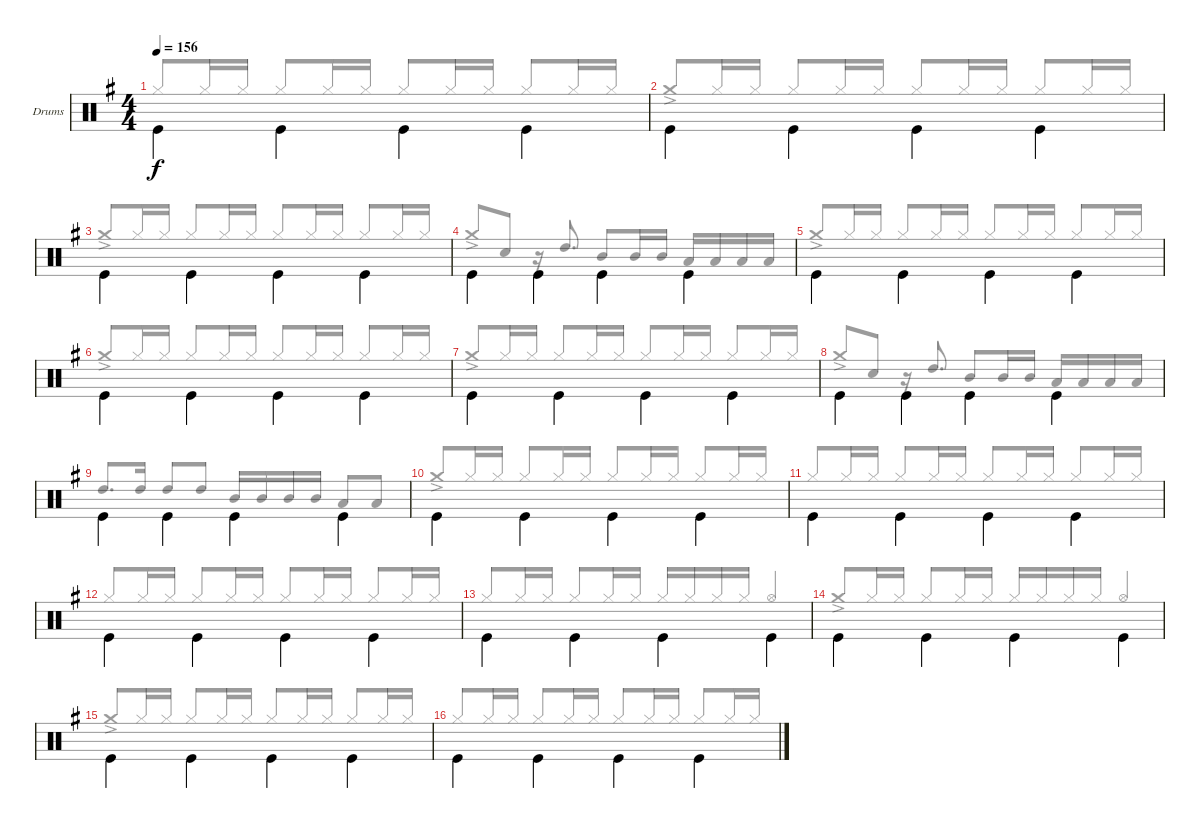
\bracketExtendMode groupsimilarinstruments
\firstSystemTrackNameOrientation horizontal
\otherSystemsTrackNameOrientation horizontal
\track ("Drums" "Drums") {instrument percussion}
\staff {score}
\articulation defaults
\voice
\ts (4 4)
\tempo 156
\clef neutral
\scale
1.04288
\ks g "Kick (hit)".4{dy f beam invert} "Kick (hit)".4{beam invert} "Kick (hit)".4{beam invert} "Kick (hit)".4{beam invert}
|
\scale
0.957125 "Kick (hit)".4{beam invert} "Kick (hit)".4{beam invert} "Kick (hit)".4{beam invert} "Kick (hit)".4{beam invert} |
\scale
1.04288 "Kick (hit)".4{beam invert} "Kick (hit)".4{beam invert} "Kick (hit)".4{beam invert} "Kick (hit)".4{beam invert} |
\scale
0.957125 "Kick (hit)".4{beam invert} "Kick (hit)".4{beam invert} "Kick (hit)".4{beam invert} "Kick (hit)".4{beam invert} |
\scale
1.04288 "Kick (hit)".4{beam invert} "Kick (hit)".4{beam invert} "Kick (hit)".4{beam invert} "Kick (hit)".4{beam invert} |
\scale
0.957125 "Kick (hit)".4{beam invert} "Kick (hit)".4{beam invert} "Kick (hit)".4{beam invert} "Kick (hit)".4{beam invert} |
\scale
1.04288 "Kick (hit)".4{beam invert} "Kick (hit)".4{beam invert} "Kick (hit)".4{beam invert} "Kick (hit)".4{beam invert} |
\scale
0.957125 "Kick (hit)".4{beam invert} "Kick (hit)".4{beam invert} "Kick (hit)".4{beam invert} "Kick (hit)".4{beam invert} |
\scale
1.04288 "Kick (hit)".4{beam invert} "Kick (hit)".4{beam invert} "Kick (hit)".4{beam invert} "Kick (hit)".4{beam invert} |
\scale
0.957125 "Kick (hit)".4{beam invert} "Kick (hit)".4{beam invert} "Kick (hit)".4{beam invert} "Kick (hit)".4{beam invert} |
\scale
1.04288 "Kick (hit)".4{beam invert} "Kick (hit)".4{beam invert} "Kick (hit)".4{beam invert} "Kick (hit)".4{beam invert} |
\scale
0.957125 "Kick (hit)".4{beam invert} "Kick (hit)".4{beam invert} "Kick (hit)".4{beam invert} "Kick (hit)".4{beam invert} |
\scale
1.04288 "Kick (hit)".4{beam invert} "Kick (hit)".4{beam invert} "Kick (hit)".4{beam invert} "Kick (hit)".4{beam invert} |
\scale
0.957125 "Kick (hit)".4{beam invert} "Kick (hit)".4{beam invert} "Kick (hit)".4{beam invert} "Kick (hit)".4{beam invert} |
\scale
1.04288 "Kick (hit)".4{beam invert} "Kick (hit)".4{beam invert} "Kick (hit)".4{beam invert} "Kick (hit)".4{beam invert} |
\scale
0.957125 "Kick (hit)".4{beam invert} "Kick (hit)".4{beam invert} "Kick (hit)".4{beam invert} "Kick (hit)".4{beam invert}
\voice
\clef neutral
\ottava regular
\simile none
\scale
1.04288
\ks g "Hi-Hat (closed)".8{dy f beam invert} "Hi-Hat (closed)".16 "Hi-Hat (closed)".16 "Hi-Hat (closed)".8{beam invert} "Hi-Hat (closed)".16 "Hi-Hat (closed)".16 "Hi-Hat (closed)".8{beam invert} "Hi-Hat (closed)".16 "Hi-Hat (closed)".16 "Hi-Hat (closed)".8{beam invert} "Hi-Hat (closed)".16 "Hi-Hat (closed)".16
|
\scale
0.957125 "Crash medium (hit)"{ac}.8{beam invert} "Hi-Hat (closed)".16 "Hi-Hat (closed)".16 "Hi-Hat (closed)".8{beam invert} "Hi-Hat (closed)".16 "Hi-Hat (closed)".16 "Hi-Hat (closed)".8{beam invert} "Hi-Hat (closed)".16 "Hi-Hat (closed)".16 "Hi-Hat (closed)".8{beam invert} "Hi-Hat (closed)".16 "Hi-Hat (closed)".16 |
\scale
1.04288 "Crash medium (hit)"{ac}.8{beam invert} "Hi-Hat (closed)".16 "Hi-Hat (closed)".16 "Hi-Hat (closed)".8{beam invert} "Hi-Hat (closed)".16 "Hi-Hat (closed)".16 "Hi-Hat (closed)".8{beam invert} "Hi-Hat (closed)".16 "Hi-Hat (closed)".16 "Hi-Hat (closed)".8{beam invert} "Hi-Hat (closed)".16 "Hi-Hat (closed)".16 |
\scale
0.957125 "Crash medium (hit)"{ac}.8{beam invert} "Snare (hit) 2".8 r.16 "High Tom (hit)".8{d beam invert} "Mid Tom (hit)".8{beam invert} "Mid Tom (hit)".16 "Mid Tom (hit)".16 "Low Tom (hit)".16{beam invert} "Low Tom (hit)".16 "Low Tom (hit)".16 "Low Tom (hit)".16 |
\scale
1.04288 "Crash medium (hit)"{ac}.8{beam invert} "Hi-Hat (closed)".16 "Hi-Hat (closed)".16 "Hi-Hat (closed)".8{beam invert} "Hi-Hat (closed)".16 "Hi-Hat (closed)".16 "Hi-Hat (closed)".8{beam invert} "Hi-Hat (closed)".16 "Hi-Hat (closed)".16 "Hi-Hat (closed)".8{beam invert} "Hi-Hat (closed)".16 "Hi-Hat (closed)".16 |
\scale
0.957125 "Crash medium (hit)"{ac}.8{beam invert} "Hi-Hat (closed)".16 "Hi-Hat (closed)".16 "Hi-Hat (closed)".8{beam invert} "Hi-Hat (closed)".16 "Hi-Hat (closed)".16 "Hi-Hat (closed)".8{beam invert} "Hi-Hat (closed)".16 "Hi-Hat (closed)".16 "Hi-Hat (closed)".8{beam invert} "Hi-Hat (closed)".16 "Hi-Hat (closed)".16 |
\scale
1.04288 "Crash medium (hit)"{ac}.8{beam invert} "Hi-Hat (closed)".16 "Hi-Hat (closed)".16 "Hi-Hat (closed)".8{beam invert} "Hi-Hat (closed)".16 "Hi-Hat (closed)".16 "Hi-Hat (closed)".8{beam invert} "Hi-Hat (closed)".16 "Hi-Hat (closed)".16 "Hi-Hat (closed)".8{beam invert} "Hi-Hat (closed)".16 "Hi-Hat (closed)".16 |
\scale
0.957125 "Crash medium (hit)"{ac}.8{beam invert} "Snare (hit) 2".8 r.16 "High Tom (hit)".8{d beam invert} "Mid Tom (hit)".8{beam invert} "Mid Tom (hit)".16 "Mid Tom (hit)".16 "Low Tom (hit)".16{beam invert} "Low Tom (hit)".16 "Low Tom (hit)".16 "Low Tom (hit)".16 |
\scale
1.04288 "High Tom (hit)".8{d beam invert} "High Tom (hit)".16 "High Tom (hit)".8{beam invert} "High Tom (hit)".8 "Mid Tom (hit)".16{beam invert} "Mid Tom (hit)".16 "Mid Tom (hit)".16 "Mid Tom (hit)".16 "Low Tom (hit)".8{beam invert} "Low Tom (hit)".8 |
\scale
0.957125 "Crash medium (hit)"{ac}.8{beam invert} "Hi-Hat (closed)".16 "Hi-Hat (closed)".16 "Hi-Hat (closed)".8{beam invert} "Hi-Hat (closed)".16 "Hi-Hat (closed)".16 "Hi-Hat (closed)".8{beam invert} "Hi-Hat (closed)".16 "Hi-Hat (closed)".16 "Hi-Hat (closed)".8{beam invert} "Hi-Hat (closed)".16 "Hi-Hat (closed)".16 |
\scale
1.04288 "Hi-Hat (closed)".8{beam invert} "Hi-Hat (closed)".16 "Hi-Hat (closed)".16 "Hi-Hat (closed)".8{beam invert} "Hi-Hat (closed)".16 "Hi-Hat (closed)".16 "Hi-Hat (closed)".8{beam invert} "Hi-Hat (closed)".16 "Hi-Hat (closed)".16 "Hi-Hat (closed)".8{beam invert} "Hi-Hat (closed)".16 "Hi-Hat (closed)".16 |
\scale
0.957125 "Hi-Hat (closed)".8{beam invert} "Hi-Hat (closed)".16 "Hi-Hat (closed)".16 "Hi-Hat (closed)".8{beam invert} "Hi-Hat (closed)".16 "Hi-Hat (closed)".16 "Hi-Hat (closed)".8{beam invert} "Hi-Hat (closed)".16 "Hi-Hat (closed)".16 "Hi-Hat (closed)".8{beam invert} "Hi-Hat (closed)".16 "Hi-Hat (closed)".16 |
\scale
1.04288 "Hi-Hat (closed)".8{beam invert} "Hi-Hat (closed)".16 "Hi-Hat (closed)".16 "Hi-Hat (closed)".8{beam invert} "Hi-Hat (closed)".16 "Hi-Hat (closed)".16 "Hi-Hat (closed)".16{beam invert} "Hi-Hat (closed)".16 "Hi-Hat (closed)".16 "Hi-Hat (closed)".16 "Hi-Hat (open)".4{beam invert} |
\scale
0.957125 "Crash medium (hit)"{ac}.8{beam invert} "Hi-Hat (closed)".16 "Hi-Hat (closed)".16 "Hi-Hat (closed)".8{beam invert} "Hi-Hat (closed)".16 "Hi-Hat (closed)".16 "Hi-Hat (closed)".16{beam invert} "Hi-Hat (closed)".16 "Hi-Hat (closed)".16 "Hi-Hat (closed)".16 "Hi-Hat (open)".4{beam invert} |
\scale
1.04288 "Crash medium (hit)"{ac}.8{beam invert} "Hi-Hat (closed)".16 "Hi-Hat (closed)".16 "Hi-Hat (closed)".8{beam invert} "Hi-Hat (closed)".16 "Hi-Hat (closed)".16 "Hi-Hat (closed)".8{beam invert} "Hi-Hat (closed)".16 "Hi-Hat (closed)".16 "Hi-Hat (closed)".8{beam invert} "Hi-Hat (closed)".16 "Hi-Hat (closed)".16 |
\scale
0.957125 "Hi-Hat (closed)".8{beam invert} "Hi-Hat (closed)".16 "Hi-Hat (closed)".16 "Hi-Hat (closed)".8{beam invert} "Hi-Hat (closed)".16 "Hi-Hat (closed)".16 "Hi-Hat (closed)".8{beam invert} "Hi-Hat (closed)".16 "Hi-Hat (closed)".16 "Hi-Hat (closed)".8{beam invert} "Hi-Hat (closed)".16 "Hi-Hat (closed)".16
